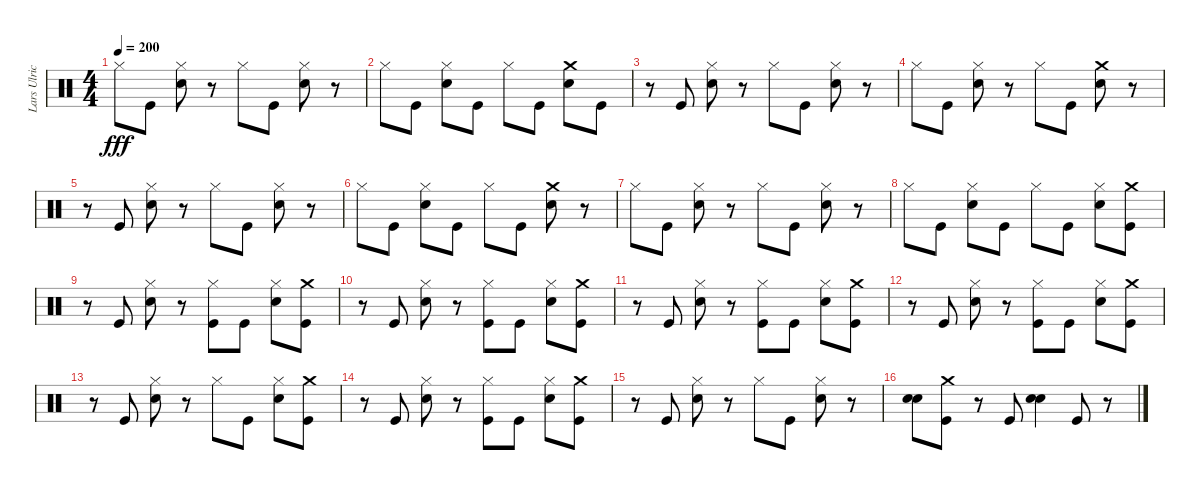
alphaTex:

\track ("Lars Ulrich" "Lars Ulric") {instrument percussion}
\staff {score}
\articulation defaults
\ts (4 4)
\tempo 200
\clef neutral
\ks c "Hi-Hat (closed)".8{dy fff} "Kick (hit)".8
("Hi-Hat (closed)" "Snare (hit) 2").8 r.8 "Hi-Hat (closed)".8 "Kick (hit)".8 ("Hi-Hat (closed)" "Snare (hit) 2").8 r.8 |
"Hi-Hat (closed)".8 "Kick (hit)".8 ("Hi-Hat (closed)" "Snare (hit) 2").8 "Kick (hit)".8 "Hi-Hat (closed)".8 "Kick (hit)".8 ("Crash medium (hit)" "Snare (hit) 2").8 "Kick (hit)".8 |
r.8 "Kick (hit)".8 ("Hi-Hat (closed)" "Snare (hit) 2").8 r.8 "Hi-Hat (closed)".8 "Kick (hit)".8 ("Hi-Hat (closed)" "Snare (hit) 2").8 r.8 |
"Hi-Hat (closed)".8 "Kick (hit)".8 ("Hi-Hat (closed)" "Snare (hit) 2").8 r.8 "Hi-Hat (closed)".8 "Kick (hit)".8 ("Crash medium (hit)" "Snare (hit) 2").8 r.8 |
r.8 "Kick (hit)".8 ("Hi-Hat (closed)" "Snare (hit) 2").8 r.8 "Hi-Hat (closed)".8 "Kick (hit)".8 ("Hi-Hat (closed)" "Snare (hit) 2").8 r.8 |
"Hi-Hat (closed)".8 "Kick (hit)".8 ("Hi-Hat (closed)" "Snare (hit) 2").8 "Kick (hit)".8 "Hi-Hat (closed)".8 "Kick (hit)".8 ("Crash medium (hit)" "Snare (hit) 2").8 r.8 |
"Hi-Hat (closed)".8 "Kick (hit)".8 ("Hi-Hat (closed)" "Snare (hit) 2").8 r.8 "Hi-Hat (closed)".8 "Kick (hit)".8 ("Hi-Hat (closed)" "Snare (hit) 2").8 r.8 |
"Hi-Hat (closed)".8 "Kick (hit)".8 ("Hi-Hat (closed)" "Snare (hit) 2").8 "Kick (hit)".8 "Hi-Hat (closed)".8 "Kick (hit)".8 ("Hi-Hat (closed)" "Snare (hit) 2").8 ("Crash medium (hit)" "Kick (hit)").8 |
r.8 "Kick (hit)".8 ("Hi-Hat (closed)" "Snare (hit) 2").8 r.8 ("Kick (hit)" "Hi-Hat (closed)").8 "Kick (hit)".8 ("Hi-Hat (closed)" "Snare (hit) 2").8 ("Crash medium (hit)" "Kick (hit)").8 |
r.8 "Kick (hit)".8 ("Hi-Hat (closed)" "Snare (hit) 2").8 r.8 ("Kick (hit)" "Hi-Hat (closed)").8 "Kick (hit)".8 ("Hi-Hat (closed)" "Snare (hit) 2").8 ("Crash medium (hit)" "Kick (hit)").8 |
r.8 "Kick (hit)".8 ("Hi-Hat (closed)" "Snare (hit) 2").8 r.8 ("Kick (hit)" "Hi-Hat (closed)").8 "Kick (hit)".8 ("Hi-Hat (closed)" "Snare (hit) 2").8 ("Crash medium (hit)" "Kick (hit)").8 |
r.8 "Kick (hit)".8 ("Hi-Hat (closed)" "Snare (hit) 2").8 r.8 ("Kick (hit)" "Hi-Hat (closed)").8 "Kick (hit)".8 ("Hi-Hat (closed)" "Snare (hit) 2").8 ("Crash medium (hit)" "Kick (hit)").8 |
r.8 "Kick (hit)".8 ("Hi-Hat (closed)" "Snare (hit) 2").8 r.8 "Hi-Hat (closed)".8 "Kick (hit)".8 ("Hi-Hat (closed)" "Snare (hit) 2").8 ("Crash medium (hit)" "Kick (hit)").8 |
r.8 "Kick (hit)".8 ("Hi-Hat (closed)" "Snare (hit) 2").8 r.8 ("Kick (hit)" "Hi-Hat (closed)").8 "Kick (hit)".8 ("Hi-Hat (closed)" "Snare (hit) 2").8 ("Crash medium (hit)" "Kick (hit)").8 |
r.8 "Kick (hit)".8 ("Hi-Hat (closed)" "Snare (hit) 2").8 r.8 "Hi-Hat (closed)".8 "Kick (hit)".8 ("Hi-Hat (closed)" "Snare (hit) 2").8 r.8 |
("Snare (hit) 2" "Snare (hit) 2").8 ("Crash medium (hit)" "Kick (hit)").8 r.8 "Kick (hit)".8 ("Snare (hit) 2" "Snare (hit) 2").4 "Kick (hit)".8 r.8
